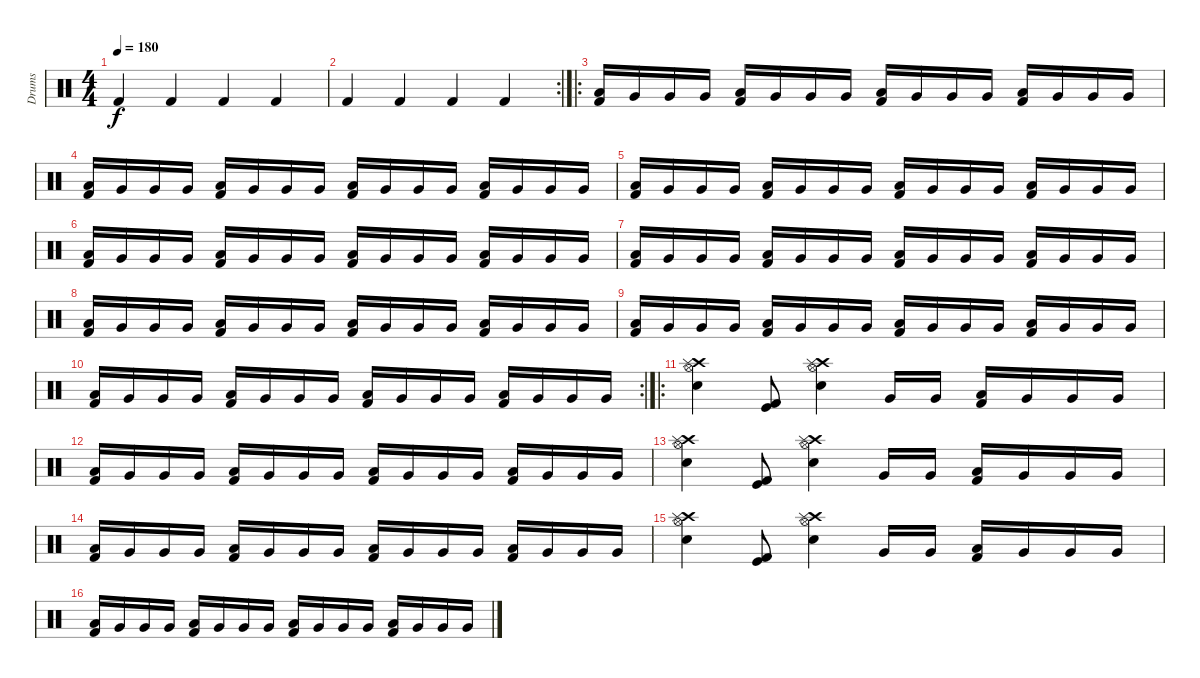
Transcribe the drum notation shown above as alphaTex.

\track ("Drums" "Drums") {instrument percussion}
\staff {score}
\articulation defaults
\ts (4 4)
\tempo 180
\clef neutral
\ks c "Kick (hit) 2".4{dy f} "Kick (hit) 2".4 "Kick (hit) 2".4 "Kick (hit) 2".4
|
\rc 2 "Kick (hit) 2".4 "Kick (hit) 2".4 "Kick (hit) 2".4 "Kick (hit) 2".4
|
\ro
("Low Tom (hit)" "Kick (hit) 2").16 "Very Low Tom (hit)".16 "Very Low Tom (hit)".16 "Very Low Tom (hit)".16 ("Low Tom (hit)" "Kick (hit) 2").16 "Very Low Tom (hit)".16 "Very Low Tom (hit)".16 "Very Low Tom (hit)".16 ("Low Tom (hit)" "Kick (hit) 2").16 "Very Low Tom (hit)".16 "Very Low Tom (hit)".16 "Very Low Tom (hit)".16 ("Low Tom (hit)" "Kick (hit) 2").16 "Very Low Tom (hit)".16 "Very Low Tom (hit)".16 "Very Low Tom (hit)".16 |
("Low Tom (hit)" "Kick (hit) 2").16 "Very Low Tom (hit)".16 "Very Low Tom (hit)".16 "Very Low Tom (hit)".16 ("Low Tom (hit)" "Kick (hit) 2").16 "Very Low Tom (hit)".16 "Very Low Tom (hit)".16 "Very Low Tom (hit)".16 ("Low Tom (hit)" "Kick (hit) 2").16 "Very Low Tom (hit)".16 "Very Low Tom (hit)".16 "Very Low Tom (hit)".16 ("Low Tom (hit)" "Kick (hit) 2").16 "Very Low Tom (hit)".16 "Very Low Tom (hit)".16 "Very Low Tom (hit)".16 |
("Low Tom (hit)" "Kick (hit) 2").16 "Very Low Tom (hit)".16 "Very Low Tom (hit)".16 "Very Low Tom (hit)".16 ("Low Tom (hit)" "Kick (hit) 2").16 "Very Low Tom (hit)".16 "Very Low Tom (hit)".16 "Very Low Tom (hit)".16 ("Low Tom (hit)" "Kick (hit) 2").16 "Very Low Tom (hit)".16 "Very Low Tom (hit)".16 "Very Low Tom (hit)".16 ("Low Tom (hit)" "Kick (hit) 2").16 "Very Low Tom (hit)".16 "Very Low Tom (hit)".16 "Very Low Tom (hit)".16 |
("Low Tom (hit)" "Kick (hit) 2").16 "Very Low Tom (hit)".16 "Very Low Tom (hit)".16 "Very Low Tom (hit)".16 ("Low Tom (hit)" "Kick (hit) 2").16 "Very Low Tom (hit)".16 "Very Low Tom (hit)".16 "Very Low Tom (hit)".16 ("Low Tom (hit)" "Kick (hit) 2").16 "Very Low Tom (hit)".16 "Very Low Tom (hit)".16 "Very Low Tom (hit)".16 ("Low Tom (hit)" "Kick (hit) 2").16 "Very Low Tom (hit)".16 "Very Low Tom (hit)".16 "Very Low Tom (hit)".16 |
("Low Tom (hit)" "Kick (hit) 2").16 "Very Low Tom (hit)".16 "Very Low Tom (hit)".16 "Very Low Tom (hit)".16 ("Low Tom (hit)" "Kick (hit) 2").16 "Very Low Tom (hit)".16 "Very Low Tom (hit)".16 "Very Low Tom (hit)".16 ("Low Tom (hit)" "Kick (hit) 2").16 "Very Low Tom (hit)".16 "Very Low Tom (hit)".16 "Very Low Tom (hit)".16 ("Low Tom (hit)" "Kick (hit) 2").16 "Very Low Tom (hit)".16 "Very Low Tom (hit)".16 "Very Low Tom (hit)".16 |
("Low Tom (hit)" "Kick (hit) 2").16 "Very Low Tom (hit)".16 "Very Low Tom (hit)".16 "Very Low Tom (hit)".16 ("Low Tom (hit)" "Kick (hit) 2").16 "Very Low Tom (hit)".16 "Very Low Tom (hit)".16 "Very Low Tom (hit)".16 ("Low Tom (hit)" "Kick (hit) 2").16 "Very Low Tom (hit)".16 "Very Low Tom (hit)".16 "Very Low Tom (hit)".16 ("Low Tom (hit)" "Kick (hit) 2").16 "Very Low Tom (hit)".16 "Very Low Tom (hit)".16 "Very Low Tom (hit)".16 |
("Low Tom (hit)" "Kick (hit) 2").16 "Very Low Tom (hit)".16 "Very Low Tom (hit)".16 "Very Low Tom (hit)".16 ("Low Tom (hit)" "Kick (hit) 2").16 "Very Low Tom (hit)".16 "Very Low Tom (hit)".16 "Very Low Tom (hit)".16 ("Low Tom (hit)" "Kick (hit) 2").16 "Very Low Tom (hit)".16 "Very Low Tom (hit)".16 "Very Low Tom (hit)".16 ("Low Tom (hit)" "Kick (hit) 2").16 "Very Low Tom (hit)".16 "Very Low Tom (hit)".16 "Very Low Tom (hit)".16 |
\rc 2
("Low Tom (hit)" "Kick (hit) 2").16 "Very Low Tom (hit)".16 "Very Low Tom (hit)".16 "Very Low Tom (hit)".16 ("Low Tom (hit)" "Kick (hit) 2").16 "Very Low Tom (hit)".16 "Very Low Tom (hit)".16 "Very Low Tom (hit)".16 ("Low Tom (hit)" "Kick (hit) 2").16 "Very Low Tom (hit)".16 "Very Low Tom (hit)".16 "Very Low Tom (hit)".16 ("Low Tom (hit)" "Kick (hit) 2").16 "Very Low Tom (hit)".16 "Very Low Tom (hit)".16 "Very Low Tom (hit)".16 |
\ro
("Hi-Hat (open)" "Crash high (hit)" "Electric Snare (hit)" "Splash (hit)").4 ("Kick (hit)" "Kick (hit) 2").8 ("Hi-Hat (open)" "Crash high (hit)" "Electric Snare (hit)" "Splash (hit)").4 "Very Low Tom (hit)".16 "Very Low Tom (hit)".16 ("Low Tom (hit)" "Kick (hit) 2").16 "Very Low Tom (hit)".16 "Very Low Tom (hit)".16 "Very Low Tom (hit)".16 |
("Low Tom (hit)" "Kick (hit) 2").16 "Very Low Tom (hit)".16 "Very Low Tom (hit)".16 "Very Low Tom (hit)".16 ("Low Tom (hit)" "Kick (hit) 2").16 "Very Low Tom (hit)".16 "Very Low Tom (hit)".16 "Very Low Tom (hit)".16 ("Low Tom (hit)" "Kick (hit) 2").16 "Very Low Tom (hit)".16 "Very Low Tom (hit)".16 "Very Low Tom (hit)".16 ("Low Tom (hit)" "Kick (hit) 2").16 "Very Low Tom (hit)".16 "Very Low Tom (hit)".16 "Very Low Tom (hit)".16 |
("Hi-Hat (open)" "Crash high (hit)" "Electric Snare (hit)" "Splash (hit)").4 ("Kick (hit)" "Kick (hit) 2").8 ("Hi-Hat (open)" "Crash high (hit)" "Electric Snare (hit)" "Splash (hit)").4 "Very Low Tom (hit)".16 "Very Low Tom (hit)".16 ("Low Tom (hit)" "Kick (hit) 2").16 "Very Low Tom (hit)".16 "Very Low Tom (hit)".16 "Very Low Tom (hit)".16 |
("Low Tom (hit)" "Kick (hit) 2").16 "Very Low Tom (hit)".16 "Very Low Tom (hit)".16 "Very Low Tom (hit)".16 ("Low Tom (hit)" "Kick (hit) 2").16 "Very Low Tom (hit)".16 "Very Low Tom (hit)".16 "Very Low Tom (hit)".16 ("Low Tom (hit)" "Kick (hit) 2").16 "Very Low Tom (hit)".16 "Very Low Tom (hit)".16 "Very Low Tom (hit)".16 ("Low Tom (hit)" "Kick (hit) 2").16 "Very Low Tom (hit)".16 "Very Low Tom (hit)".16 "Very Low Tom (hit)".16 |
("Hi-Hat (open)" "Crash high (hit)" "Electric Snare (hit)" "Splash (hit)").4 ("Kick (hit)" "Kick (hit) 2").8 ("Hi-Hat (open)" "Crash high (hit)" "Electric Snare (hit)" "Splash (hit)").4 "Very Low Tom (hit)".16 "Very Low Tom (hit)".16 ("Low Tom (hit)" "Kick (hit) 2").16 "Very Low Tom (hit)".16 "Very Low Tom (hit)".16 "Very Low Tom (hit)".16 |
("Low Tom (hit)" "Kick (hit) 2").16 "Very Low Tom (hit)".16 "Very Low Tom (hit)".16 "Very Low Tom (hit)".16 ("Low Tom (hit)" "Kick (hit) 2").16 "Very Low Tom (hit)".16 "Very Low Tom (hit)".16 "Very Low Tom (hit)".16 ("Low Tom (hit)" "Kick (hit) 2").16 "Very Low Tom (hit)".16 "Very Low Tom (hit)".16 "Very Low Tom (hit)".16 ("Low Tom (hit)" "Kick (hit) 2").16 "Very Low Tom (hit)".16 "Very Low Tom (hit)".16 "Very Low Tom (hit)".16
